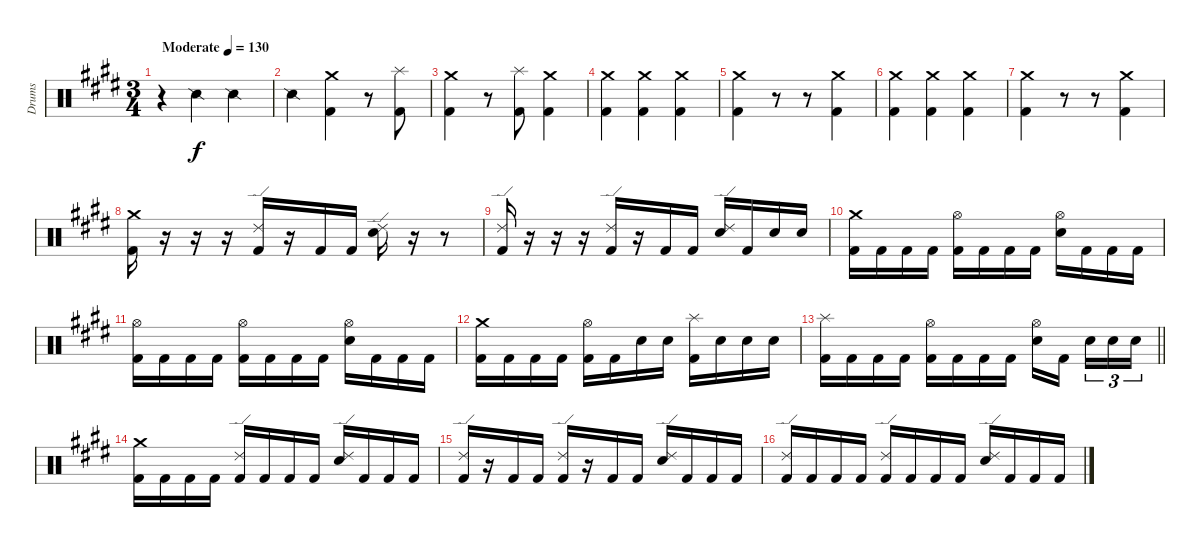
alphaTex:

\track ("Drums" "Drums") {instrument percussion}
\staff {score}
\articulation defaults
\ts (3 4)
\tempo (130 "Moderate")
\clef neutral
\ks e
r.4{dy f} "Snare (side stick) 2".4 "Snare (side stick) 2".4 |
"Snare (side stick) 2".4 ("Kick (hit) 2" "Crash medium (hit)").4 r.8 ("Kick (hit) 2" "Splash (hit)").8 |
("Kick (hit) 2" "Crash medium (hit)").4 r.8 ("Kick (hit) 2" "Splash (hit)").8 ("Kick (hit) 2" "Crash medium (hit)").4 |
("Kick (hit) 2" "Crash medium (hit)").4 ("Kick (hit) 2" "Crash medium (hit)").4 ("Kick (hit) 2" "Crash medium (hit)").4 |
("Kick (hit) 2" "Crash medium (hit)").4 r.8 r.8 ("Kick (hit) 2" "Crash medium (hit)").4 |
("Kick (hit) 2" "Crash medium (hit)").4 ("Kick (hit) 2" "Crash medium (hit)").4 ("Kick (hit) 2" "Crash medium (hit)").4 |
("Kick (hit) 2" "Crash medium (hit)").4 r.8 r.8 ("Kick (hit) 2" "Crash medium (hit)").4 |
("Kick (hit) 2" "Crash medium (hit)").16 r.16 r.16 r.16 ("Kick (hit) 2" "Ride (edge) 2").16 r.16 "Kick (hit) 2".16 "Kick (hit) 2".16 ("Electric Snare (hit)" "Ride (edge) 2").16 r.16 r.8 |
("Kick (hit) 2" "Ride (edge) 2").16 r.16 r.16 r.16 ("Kick (hit) 2" "Ride (edge) 2").16 r.16 "Kick (hit) 2".16 "Kick (hit) 2".16 ("Electric Snare (hit)" "Ride (edge) 2").16 "Kick (hit) 2".16 "Electric Snare (hit)".16 "Electric Snare (hit)".16 |
("Kick (hit) 2" "Crash medium (hit)").16 "Kick (hit) 2".16 "Kick (hit) 2".16 "Kick (hit) 2".16 ("Kick (hit) 2" "Hi-Hat (open)").16 "Kick (hit) 2".16 "Kick (hit) 2".16 "Kick (hit) 2".16 ("Electric Snare (hit)" "Hi-Hat (open)").16 "Kick (hit) 2".16 "Kick (hit) 2".16 "Kick (hit) 2".16 |
("Kick (hit) 2" "Hi-Hat (open)").16 "Kick (hit) 2".16 "Kick (hit) 2".16 "Kick (hit) 2".16 ("Kick (hit) 2" "Hi-Hat (open)").16 "Kick (hit) 2".16 "Kick (hit) 2".16 "Kick (hit) 2".16 ("Electric Snare (hit)" "Hi-Hat (open)").16 "Kick (hit) 2".16 "Kick (hit) 2".16 "Kick (hit) 2".16 |
("Kick (hit) 2" "Crash medium (hit)").16 "Kick (hit) 2".16 "Kick (hit) 2".16 "Kick (hit) 2".16 ("Kick (hit) 2" "Hi-Hat (open)").16 "Kick (hit) 2".16 "Electric Snare (hit)".16 "Electric Snare (hit)".16 ("Kick (hit) 2" "Splash (hit)").16 "Electric Snare (hit)".16 "Electric Snare (hit)".16 "Electric Snare (hit)".16 |
\barLineRight lightlight
("Kick (hit) 2" "Splash (hit)").16 "Kick (hit) 2".16 "Kick (hit) 2".16 "Kick (hit) 2".16 ("Kick (hit) 2" "Hi-Hat (open)").16 "Kick (hit) 2".16 "Kick (hit) 2".16 "Kick (hit) 2".16 ("Electric Snare (hit)" "Hi-Hat (open)").16 "Kick (hit) 2".16{beam splitsecondary} "Electric Snare (hit)".16{tu (3 2)} "Electric Snare (hit)".16{tu (3 2)} "Electric Snare (hit)".16{tu (3 2)} |
("Kick (hit) 2" "Crash medium (hit)").16 "Kick (hit) 2".16 "Kick (hit) 2".16 "Kick (hit) 2".16 ("Kick (hit) 2" "Ride (edge) 2").16 "Kick (hit) 2".16 "Kick (hit) 2".16 "Kick (hit) 2".16 ("Electric Snare (hit)" "Ride (edge) 2").16 "Kick (hit) 2".16 "Kick (hit) 2".16 "Kick (hit) 2".16 |
("Kick (hit) 2" "Ride (edge) 2").16 r.16 "Kick (hit) 2".16 "Kick (hit) 2".16 ("Kick (hit) 2" "Ride (edge) 2").16 r.16 "Kick (hit) 2".16 "Kick (hit) 2".16 ("Electric Snare (hit)" "Ride (edge) 2").16 "Kick (hit) 2".16 "Kick (hit) 2".16 "Kick (hit) 2".16 |
("Kick (hit) 2" "Ride (edge) 2").16 "Kick (hit) 2".16 "Kick (hit) 2".16 "Kick (hit) 2".16 ("Kick (hit) 2" "Ride (edge) 2").16 "Kick (hit) 2".16 "Kick (hit) 2".16 "Kick (hit) 2".16 ("Electric Snare (hit)" "Ride (edge) 2").16 "Kick (hit) 2".16 "Kick (hit) 2".16 "Kick (hit) 2".16
